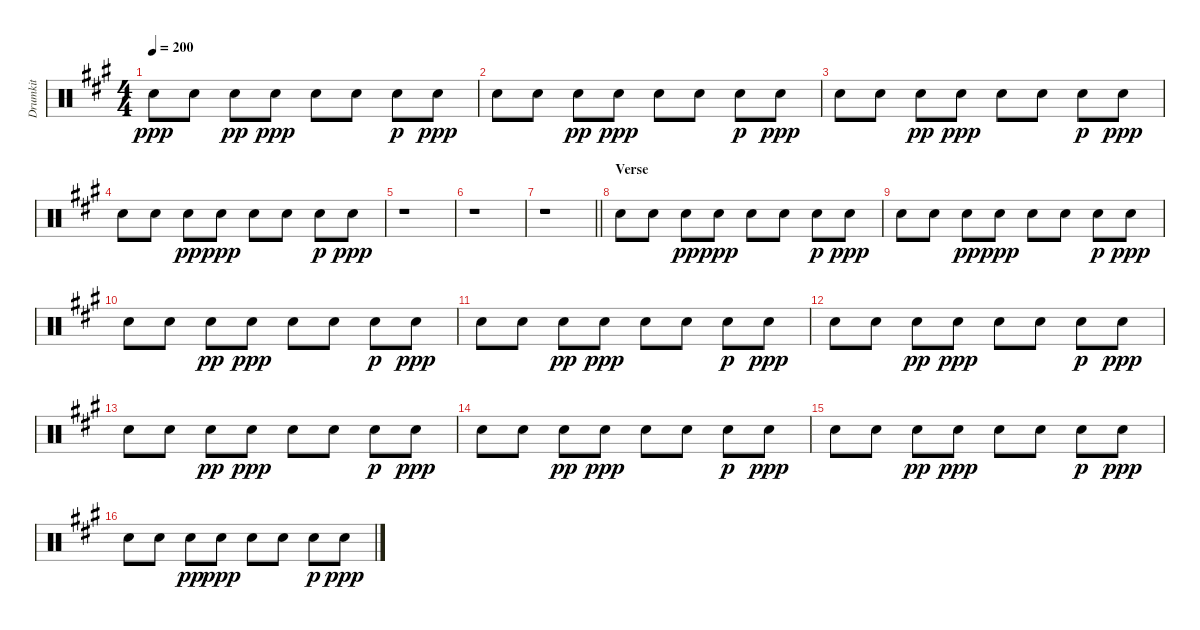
\track ("Drumkit" "Drumkit") {instrument percussion}
\staff {score}
\articulation defaults
\ts (4 4)
\tempo 200
\clef neutral
\ks a "Snare (hit) 2".8{dy ppp} "Snare (hit) 2".8 "Snare (hit) 2".8{dy pp} "Snare (hit) 2".8{dy ppp} "Snare (hit) 2".8 "Snare (hit) 2".8 "Snare (hit) 2".8{dy p} "Snare (hit) 2".8{dy ppp}
|
"Snare (hit) 2".8 "Snare (hit) 2".8 "Snare (hit) 2".8{dy pp} "Snare (hit) 2".8{dy ppp} "Snare (hit) 2".8 "Snare (hit) 2".8 "Snare (hit) 2".8{dy p} "Snare (hit) 2".8{dy ppp} |
"Snare (hit) 2".8 "Snare (hit) 2".8 "Snare (hit) 2".8{dy pp} "Snare (hit) 2".8{dy ppp} "Snare (hit) 2".8 "Snare (hit) 2".8 "Snare (hit) 2".8{dy p} "Snare (hit) 2".8{dy ppp} |
"Snare (hit) 2".8 "Snare (hit) 2".8 "Snare (hit) 2".8{dy pp} "Snare (hit) 2".8{dy ppp} "Snare (hit) 2".8 "Snare (hit) 2".8 "Snare (hit) 2".8{dy p} "Snare (hit) 2".8{dy ppp} |
r.1 |
r.1 |
\barLineRight lightlight
r.1 |
\section ("" "Verse")
"Snare (hit) 2".8 "Snare (hit) 2".8 "Snare (hit) 2".8{dy pp} "Snare (hit) 2".8{dy ppp} "Snare (hit) 2".8 "Snare (hit) 2".8 "Snare (hit) 2".8{dy p} "Snare (hit) 2".8{dy ppp} |
"Snare (hit) 2".8 "Snare (hit) 2".8 "Snare (hit) 2".8{dy pp} "Snare (hit) 2".8{dy ppp} "Snare (hit) 2".8 "Snare (hit) 2".8 "Snare (hit) 2".8{dy p} "Snare (hit) 2".8{dy ppp} |
"Snare (hit) 2".8 "Snare (hit) 2".8 "Snare (hit) 2".8{dy pp} "Snare (hit) 2".8{dy ppp} "Snare (hit) 2".8 "Snare (hit) 2".8 "Snare (hit) 2".8{dy p} "Snare (hit) 2".8{dy ppp} |
"Snare (hit) 2".8 "Snare (hit) 2".8 "Snare (hit) 2".8{dy pp} "Snare (hit) 2".8{dy ppp} "Snare (hit) 2".8 "Snare (hit) 2".8 "Snare (hit) 2".8{dy p} "Snare (hit) 2".8{dy ppp} |
"Snare (hit) 2".8 "Snare (hit) 2".8 "Snare (hit) 2".8{dy pp} "Snare (hit) 2".8{dy ppp} "Snare (hit) 2".8 "Snare (hit) 2".8 "Snare (hit) 2".8{dy p} "Snare (hit) 2".8{dy ppp} |
"Snare (hit) 2".8 "Snare (hit) 2".8 "Snare (hit) 2".8{dy pp} "Snare (hit) 2".8{dy ppp} "Snare (hit) 2".8 "Snare (hit) 2".8 "Snare (hit) 2".8{dy p} "Snare (hit) 2".8{dy ppp} |
"Snare (hit) 2".8 "Snare (hit) 2".8 "Snare (hit) 2".8{dy pp} "Snare (hit) 2".8{dy ppp} "Snare (hit) 2".8 "Snare (hit) 2".8 "Snare (hit) 2".8{dy p} "Snare (hit) 2".8{dy ppp} |
"Snare (hit) 2".8 "Snare (hit) 2".8 "Snare (hit) 2".8{dy pp} "Snare (hit) 2".8{dy ppp} "Snare (hit) 2".8 "Snare (hit) 2".8 "Snare (hit) 2".8{dy p} "Snare (hit) 2".8{dy ppp} |
"Snare (hit) 2".8 "Snare (hit) 2".8 "Snare (hit) 2".8{dy pp} "Snare (hit) 2".8{dy ppp} "Snare (hit) 2".8 "Snare (hit) 2".8 "Snare (hit) 2".8{dy p} "Snare (hit) 2".8{dy ppp}
